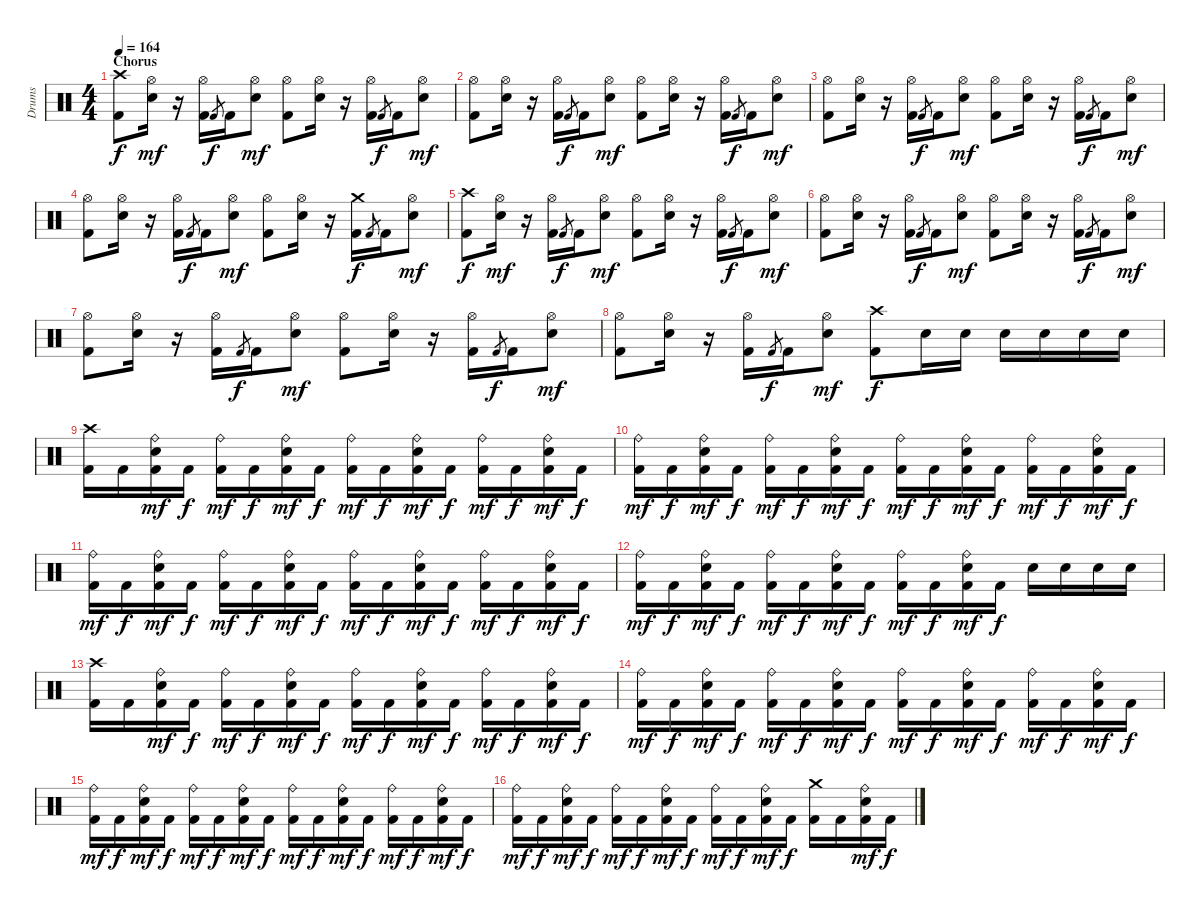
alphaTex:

\track ("Drums" "Drums") {instrument percussion}
\staff {score}
\articulation defaults
\ts (4 4)
\section ("" "Chorus")
\tempo 164
\clef neutral
\ks c
("Crash high (hit)" "Kick (hit) 2").8{dy f} ("Hi-Hat (open)" "Electric Snare (hit)").16{dy mf} r.16 ("Hi-Hat (open)" "Kick (hit) 2").16 "Kick (hit) 2".8{gr dy f} "Kick (hit) 2".16 ("Hi-Hat (open)" "Electric Snare (hit)").8{dy mf} ("Hi-Hat (open)" "Kick (hit) 2").8 ("Hi-Hat (open)" "Electric Snare (hit)").16 r.16 ("Hi-Hat (open)" "Kick (hit) 2").16 "Kick (hit) 2".8{gr dy f} "Kick (hit) 2".16 ("Hi-Hat (open)" "Electric Snare (hit)").8{dy mf} |
("Hi-Hat (open)" "Kick (hit) 2").8 ("Hi-Hat (open)" "Electric Snare (hit)").16 r.16 ("Hi-Hat (open)" "Kick (hit) 2").16 "Kick (hit) 2".8{gr dy f} "Kick (hit) 2".16 ("Hi-Hat (open)" "Electric Snare (hit)").8{dy mf} ("Hi-Hat (open)" "Kick (hit) 2").8 ("Hi-Hat (open)" "Electric Snare (hit)").16 r.16 ("Hi-Hat (open)" "Kick (hit) 2").16 "Kick (hit) 2".8{gr dy f} "Kick (hit) 2".16 ("Hi-Hat (open)" "Electric Snare (hit)").8{dy mf} |
("Hi-Hat (open)" "Kick (hit) 2").8 ("Hi-Hat (open)" "Electric Snare (hit)").16 r.16 ("Hi-Hat (open)" "Kick (hit) 2").16 "Kick (hit) 2".8{gr dy f} "Kick (hit) 2".16 ("Hi-Hat (open)" "Electric Snare (hit)").8{dy mf} ("Hi-Hat (open)" "Kick (hit) 2").8 ("Hi-Hat (open)" "Electric Snare (hit)").16 r.16 ("Hi-Hat (open)" "Kick (hit) 2").16 "Kick (hit) 2".8{gr dy f} "Kick (hit) 2".16 ("Hi-Hat (open)" "Electric Snare (hit)").8{dy mf} |
("Hi-Hat (open)" "Kick (hit) 2").8 ("Hi-Hat (open)" "Electric Snare (hit)").16 r.16 ("Hi-Hat (open)" "Kick (hit) 2").16 "Kick (hit) 2".8{gr dy f} "Kick (hit) 2".16 ("Hi-Hat (open)" "Electric Snare (hit)").8{dy mf} ("Hi-Hat (open)" "Kick (hit) 2").8 ("Hi-Hat (open)" "Electric Snare (hit)").16 r.16 ("Crash medium (hit)" "Kick (hit) 2").16{dy f} "Kick (hit) 2".8{gr} "Kick (hit) 2".16 ("Hi-Hat (open)" "Electric Snare (hit)").8{dy mf} |
("Crash high (hit)" "Kick (hit) 2").8{dy f} ("Hi-Hat (open)" "Electric Snare (hit)").16{dy mf} r.16 ("Hi-Hat (open)" "Kick (hit) 2").16 "Kick (hit) 2".8{gr dy f} "Kick (hit) 2".16 ("Hi-Hat (open)" "Electric Snare (hit)").8{dy mf} ("Hi-Hat (open)" "Kick (hit) 2").8 ("Hi-Hat (open)" "Electric Snare (hit)").16 r.16 ("Hi-Hat (open)" "Kick (hit) 2").16 "Kick (hit) 2".8{gr dy f} "Kick (hit) 2".16 ("Hi-Hat (open)" "Electric Snare (hit)").8{dy mf} |
("Hi-Hat (open)" "Kick (hit) 2").8 ("Hi-Hat (open)" "Electric Snare (hit)").16 r.16 ("Hi-Hat (open)" "Kick (hit) 2").16 "Kick (hit) 2".8{gr dy f} "Kick (hit) 2".16 ("Hi-Hat (open)" "Electric Snare (hit)").8{dy mf} ("Hi-Hat (open)" "Kick (hit) 2").8 ("Hi-Hat (open)" "Electric Snare (hit)").16 r.16 ("Hi-Hat (open)" "Kick (hit) 2").16 "Kick (hit) 2".8{gr dy f} "Kick (hit) 2".16 ("Hi-Hat (open)" "Electric Snare (hit)").8{dy mf} |
("Hi-Hat (open)" "Kick (hit) 2").8 ("Hi-Hat (open)" "Electric Snare (hit)").16 r.16 ("Hi-Hat (open)" "Kick (hit) 2").16 "Kick (hit) 2".8{gr dy f} "Kick (hit) 2".16 ("Hi-Hat (open)" "Electric Snare (hit)").8{dy mf} ("Hi-Hat (open)" "Kick (hit) 2").8 ("Hi-Hat (open)" "Electric Snare (hit)").16 r.16 ("Hi-Hat (open)" "Kick (hit) 2").16 "Kick (hit) 2".8{gr dy f} "Kick (hit) 2".16 ("Hi-Hat (open)" "Electric Snare (hit)").8{dy mf} |
("Hi-Hat (open)" "Kick (hit) 2").8 ("Hi-Hat (open)" "Electric Snare (hit)").16 r.16 ("Hi-Hat (open)" "Kick (hit) 2").16 "Kick (hit) 2".8{gr dy f} "Kick (hit) 2".16 ("Hi-Hat (open)" "Electric Snare (hit)").8{dy mf} ("Crash high (hit)" "Kick (hit) 2").8{dy f} "Electric Snare (hit)".16 "Electric Snare (hit)".16 "Electric Snare (hit)".16 "Electric Snare (hit)".16 "Electric Snare (hit)".16 "Electric Snare (hit)".16 |
("Crash high (hit)" "Kick (hit) 2").16 "Kick (hit) 2".16 ("Ride (bell)" "Electric Snare (hit)" "Kick (hit) 2").16{dy mf} "Kick (hit) 2".16{dy f} ("Ride (bell)" "Kick (hit) 2").16{dy mf} "Kick (hit) 2".16{dy f} ("Ride (bell)" "Electric Snare (hit)" "Kick (hit) 2").16{dy mf} "Kick (hit) 2".16{dy f} ("Ride (bell)" "Kick (hit) 2").16{dy mf} "Kick (hit) 2".16{dy f} ("Ride (bell)" "Electric Snare (hit)" "Kick (hit) 2").16{dy mf} "Kick (hit) 2".16{dy f} ("Ride (bell)" "Kick (hit) 2").16{dy mf} "Kick (hit) 2".16{dy f} ("Ride (bell)" "Electric Snare (hit)" "Kick (hit) 2").16{dy mf} "Kick (hit) 2".16{dy f} |
("Ride (bell)" "Kick (hit) 2").16{dy mf} "Kick (hit) 2".16{dy f} ("Ride (bell)" "Electric Snare (hit)" "Kick (hit) 2").16{dy mf} "Kick (hit) 2".16{dy f} ("Ride (bell)" "Kick (hit) 2").16{dy mf} "Kick (hit) 2".16{dy f} ("Ride (bell)" "Electric Snare (hit)" "Kick (hit) 2").16{dy mf} "Kick (hit) 2".16{dy f} ("Ride (bell)" "Kick (hit) 2").16{dy mf} "Kick (hit) 2".16{dy f} ("Ride (bell)" "Electric Snare (hit)" "Kick (hit) 2").16{dy mf} "Kick (hit) 2".16{dy f} ("Ride (bell)" "Kick (hit) 2").16{dy mf} "Kick (hit) 2".16{dy f} ("Ride (bell)" "Electric Snare (hit)" "Kick (hit) 2").16{dy mf} "Kick (hit) 2".16{dy f} |
("Ride (bell)" "Kick (hit) 2").16{dy mf} "Kick (hit) 2".16{dy f} ("Ride (bell)" "Electric Snare (hit)" "Kick (hit) 2").16{dy mf} "Kick (hit) 2".16{dy f} ("Ride (bell)" "Kick (hit) 2").16{dy mf} "Kick (hit) 2".16{dy f} ("Ride (bell)" "Electric Snare (hit)" "Kick (hit) 2").16{dy mf} "Kick (hit) 2".16{dy f} ("Ride (bell)" "Kick (hit) 2").16{dy mf} "Kick (hit) 2".16{dy f} ("Ride (bell)" "Electric Snare (hit)" "Kick (hit) 2").16{dy mf} "Kick (hit) 2".16{dy f} ("Ride (bell)" "Kick (hit) 2").16{dy mf} "Kick (hit) 2".16{dy f} ("Ride (bell)" "Electric Snare (hit)" "Kick (hit) 2").16{dy mf} "Kick (hit) 2".16{dy f} |
("Ride (bell)" "Kick (hit) 2").16{dy mf} "Kick (hit) 2".16{dy f} ("Ride (bell)" "Electric Snare (hit)" "Kick (hit) 2").16{dy mf} "Kick (hit) 2".16{dy f} ("Ride (bell)" "Kick (hit) 2").16{dy mf} "Kick (hit) 2".16{dy f} ("Ride (bell)" "Electric Snare (hit)" "Kick (hit) 2").16{dy mf} "Kick (hit) 2".16{dy f} ("Ride (bell)" "Kick (hit) 2").16{dy mf} "Kick (hit) 2".16{dy f} ("Ride (bell)" "Electric Snare (hit)" "Kick (hit) 2").16{dy mf} "Kick (hit) 2".16{dy f} "Electric Snare (hit)".16 "Electric Snare (hit)".16 "Electric Snare (hit)".16 "Electric Snare (hit)".16 |
("Crash high (hit)" "Kick (hit) 2").16 "Kick (hit) 2".16 ("Ride (bell)" "Electric Snare (hit)" "Kick (hit) 2").16{dy mf} "Kick (hit) 2".16{dy f} ("Ride (bell)" "Kick (hit) 2").16{dy mf} "Kick (hit) 2".16{dy f} ("Ride (bell)" "Electric Snare (hit)" "Kick (hit) 2").16{dy mf} "Kick (hit) 2".16{dy f} ("Ride (bell)" "Kick (hit) 2").16{dy mf} "Kick (hit) 2".16{dy f} ("Ride (bell)" "Electric Snare (hit)" "Kick (hit) 2").16{dy mf} "Kick (hit) 2".16{dy f} ("Ride (bell)" "Kick (hit) 2").16{dy mf} "Kick (hit) 2".16{dy f} ("Ride (bell)" "Electric Snare (hit)" "Kick (hit) 2").16{dy mf} "Kick (hit) 2".16{dy f} |
("Ride (bell)" "Kick (hit) 2").16{dy mf} "Kick (hit) 2".16{dy f} ("Ride (bell)" "Electric Snare (hit)" "Kick (hit) 2").16{dy mf} "Kick (hit) 2".16{dy f} ("Ride (bell)" "Kick (hit) 2").16{dy mf} "Kick (hit) 2".16{dy f} ("Ride (bell)" "Electric Snare (hit)" "Kick (hit) 2").16{dy mf} "Kick (hit) 2".16{dy f} ("Ride (bell)" "Kick (hit) 2").16{dy mf} "Kick (hit) 2".16{dy f} ("Ride (bell)" "Electric Snare (hit)" "Kick (hit) 2").16{dy mf} "Kick (hit) 2".16{dy f} ("Ride (bell)" "Kick (hit) 2").16{dy mf} "Kick (hit) 2".16{dy f} ("Ride (bell)" "Electric Snare (hit)" "Kick (hit) 2").16{dy mf} "Kick (hit) 2".16{dy f} |
("Ride (bell)" "Kick (hit) 2").16{dy mf} "Kick (hit) 2".16{dy f} ("Ride (bell)" "Electric Snare (hit)" "Kick (hit) 2").16{dy mf} "Kick (hit) 2".16{dy f} ("Ride (bell)" "Kick (hit) 2").16{dy mf} "Kick (hit) 2".16{dy f} ("Ride (bell)" "Electric Snare (hit)" "Kick (hit) 2").16{dy mf} "Kick (hit) 2".16{dy f} ("Ride (bell)" "Kick (hit) 2").16{dy mf} "Kick (hit) 2".16{dy f} ("Ride (bell)" "Electric Snare (hit)" "Kick (hit) 2").16{dy mf} "Kick (hit) 2".16{dy f} ("Ride (bell)" "Kick (hit) 2").16{dy mf} "Kick (hit) 2".16{dy f} ("Ride (bell)" "Electric Snare (hit)" "Kick (hit) 2").16{dy mf} "Kick (hit) 2".16{dy f} |
("Ride (bell)" "Kick (hit) 2").16{dy mf} "Kick (hit) 2".16{dy f} ("Ride (bell)" "Electric Snare (hit)" "Kick (hit) 2").16{dy mf} "Kick (hit) 2".16{dy f} ("Ride (bell)" "Kick (hit) 2").16{dy mf} "Kick (hit) 2".16{dy f} ("Ride (bell)" "Electric Snare (hit)" "Kick (hit) 2").16{dy mf} "Kick (hit) 2".16{dy f} ("Ride (bell)" "Kick (hit) 2").16{dy mf} "Kick (hit) 2".16{dy f} ("Ride (bell)" "Electric Snare (hit)" "Kick (hit) 2").16{dy mf} "Kick (hit) 2".16{dy f} ("Crash medium (hit)" "Kick (hit) 2").16 "Kick (hit) 2".16 ("Ride (bell)" "Electric Snare (hit)" "Kick (hit) 2").16{dy mf} "Kick (hit) 2".16{dy f}
